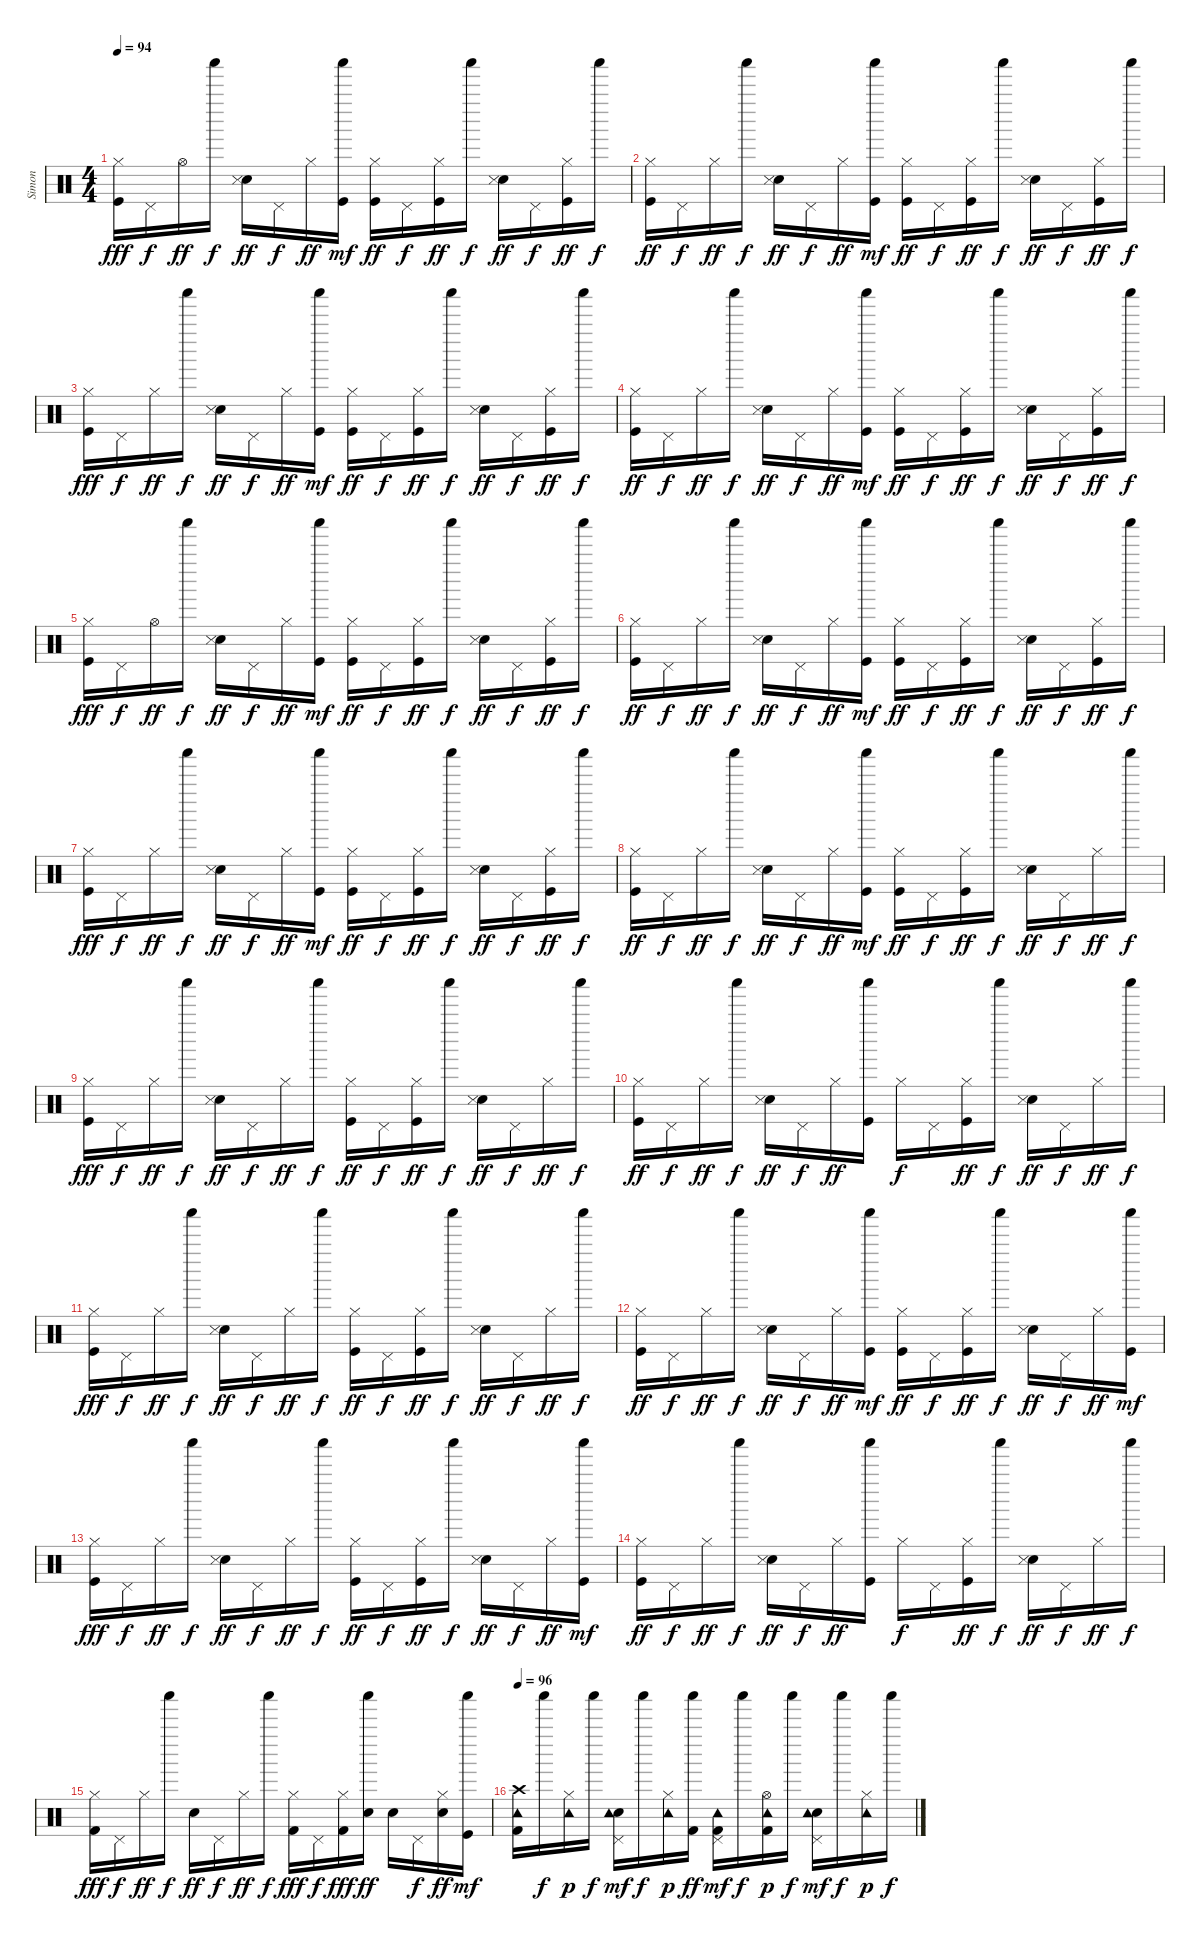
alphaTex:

\track ("Simon" "Simon") {instrument percussion}
\staff {score}
\articulation defaults
\ts (4 4)
\tempo 94
\clef neutral
\ks c
("Hi-Hat (closed)" "Kick (hit)").16{dy fff} "Pedal Hi-Hat (hit)".16{dy f} "Hi-Hat (open)".16{dy ff} "Shaker (hit)".16{dy f} ("Electric Snare (hit)" "Snare (side stick) 3").16{dy ff} "Pedal Hi-Hat (hit)".16{dy f} "Hi-Hat (closed)".16{dy ff} ("Shaker (hit)" "Kick (hit)").16{dy mf} ("Kick (hit)" "Hi-Hat (closed)").16{dy ff} "Pedal Hi-Hat (hit)".16{dy f} ("Kick (hit)" "Hi-Hat (closed)").16{dy ff} "Shaker (hit)".16{dy f} ("Electric Snare (hit)" "Snare (side stick) 3").16{dy ff} "Pedal Hi-Hat (hit)".16{dy f} ("Kick (hit)" "Hi-Hat (closed)").16{dy ff} "Shaker (hit)".16{dy f} |
("Kick (hit)" "Hi-Hat (closed)").16{dy ff} "Pedal Hi-Hat (hit)".16{dy f} "Hi-Hat (closed)".16{dy ff} "Shaker (hit)".16{dy f} ("Electric Snare (hit)" "Snare (side stick) 3").16{dy ff} "Pedal Hi-Hat (hit)".16{dy f} "Hi-Hat (closed)".16{dy ff} ("Kick (hit)" "Shaker (hit)").16{dy mf} ("Kick (hit)" "Hi-Hat (closed)").16{dy ff} "Pedal Hi-Hat (hit)".16{dy f} ("Kick (hit)" "Hi-Hat (closed)").16{dy ff} "Shaker (hit)".16{dy f} ("Electric Snare (hit)" "Snare (side stick) 3").16{dy ff} "Pedal Hi-Hat (hit)".16{dy f} ("Kick (hit)" "Hi-Hat (closed)").16{dy ff} "Shaker (hit)".16{dy f} |
("Hi-Hat (closed)" "Kick (hit)").16{dy fff} "Pedal Hi-Hat (hit)".16{dy f} "Hi-Hat (closed)".16{dy ff} "Shaker (hit)".16{dy f} ("Electric Snare (hit)" "Snare (side stick) 3").16{dy ff} "Pedal Hi-Hat (hit)".16{dy f} "Hi-Hat (closed)".16{dy ff} ("Shaker (hit)" "Kick (hit)").16{dy mf} ("Kick (hit)" "Hi-Hat (closed)").16{dy ff} "Pedal Hi-Hat (hit)".16{dy f} ("Kick (hit)" "Hi-Hat (closed)").16{dy ff} "Shaker (hit)".16{dy f} ("Electric Snare (hit)" "Snare (side stick) 3").16{dy ff} "Pedal Hi-Hat (hit)".16{dy f} ("Kick (hit)" "Hi-Hat (closed)").16{dy ff} "Shaker (hit)".16{dy f} |
("Kick (hit)" "Hi-Hat (closed)").16{dy ff} "Pedal Hi-Hat (hit)".16{dy f} "Hi-Hat (closed)".16{dy ff} "Shaker (hit)".16{dy f} ("Electric Snare (hit)" "Snare (side stick) 3").16{dy ff} "Pedal Hi-Hat (hit)".16{dy f} "Hi-Hat (closed)".16{dy ff} ("Kick (hit)" "Shaker (hit)").16{dy mf} ("Kick (hit)" "Hi-Hat (closed)").16{dy ff} "Pedal Hi-Hat (hit)".16{dy f} ("Kick (hit)" "Hi-Hat (closed)").16{dy ff} "Shaker (hit)".16{dy f} ("Electric Snare (hit)" "Snare (side stick) 3").16{dy ff} "Pedal Hi-Hat (hit)".16{dy f} ("Kick (hit)" "Hi-Hat (closed)").16{dy ff} "Shaker (hit)".16{dy f} |
("Hi-Hat (closed)" "Kick (hit)").16{dy fff} "Pedal Hi-Hat (hit)".16{dy f} "Hi-Hat (open)".16{dy ff} "Shaker (hit)".16{dy f} ("Electric Snare (hit)" "Snare (side stick) 3").16{dy ff} "Pedal Hi-Hat (hit)".16{dy f} "Hi-Hat (closed)".16{dy ff} ("Shaker (hit)" "Kick (hit)").16{dy mf} ("Kick (hit)" "Hi-Hat (closed)").16{dy ff} "Pedal Hi-Hat (hit)".16{dy f} ("Kick (hit)" "Hi-Hat (closed)").16{dy ff} "Shaker (hit)".16{dy f} ("Electric Snare (hit)" "Snare (side stick) 3").16{dy ff} "Pedal Hi-Hat (hit)".16{dy f} ("Kick (hit)" "Hi-Hat (closed)").16{dy ff} "Shaker (hit)".16{dy f} |
("Kick (hit)" "Hi-Hat (closed)").16{dy ff} "Pedal Hi-Hat (hit)".16{dy f} "Hi-Hat (closed)".16{dy ff} "Shaker (hit)".16{dy f} ("Electric Snare (hit)" "Snare (side stick) 3").16{dy ff} "Pedal Hi-Hat (hit)".16{dy f} "Hi-Hat (closed)".16{dy ff} ("Kick (hit)" "Shaker (hit)").16{dy mf} ("Kick (hit)" "Hi-Hat (closed)").16{dy ff} "Pedal Hi-Hat (hit)".16{dy f} ("Kick (hit)" "Hi-Hat (closed)").16{dy ff} "Shaker (hit)".16{dy f} ("Electric Snare (hit)" "Snare (side stick) 3").16{dy ff} "Pedal Hi-Hat (hit)".16{dy f} ("Kick (hit)" "Hi-Hat (closed)").16{dy ff} "Shaker (hit)".16{dy f} |
("Hi-Hat (closed)" "Kick (hit)").16{dy fff} "Pedal Hi-Hat (hit)".16{dy f} "Hi-Hat (closed)".16{dy ff} "Shaker (hit)".16{dy f} ("Electric Snare (hit)" "Snare (side stick) 3").16{dy ff} "Pedal Hi-Hat (hit)".16{dy f} "Hi-Hat (closed)".16{dy ff} ("Shaker (hit)" "Kick (hit)").16{dy mf} ("Kick (hit)" "Hi-Hat (closed)").16{dy ff} "Pedal Hi-Hat (hit)".16{dy f} ("Kick (hit)" "Hi-Hat (closed)").16{dy ff} "Shaker (hit)".16{dy f} ("Electric Snare (hit)" "Snare (side stick) 3").16{dy ff} "Pedal Hi-Hat (hit)".16{dy f} ("Kick (hit)" "Hi-Hat (closed)").16{dy ff} "Shaker (hit)".16{dy f} |
("Kick (hit)" "Hi-Hat (closed)").16{dy ff} "Pedal Hi-Hat (hit)".16{dy f} "Hi-Hat (closed)".16{dy ff} "Shaker (hit)".16{dy f} ("Electric Snare (hit)" "Snare (side stick) 3").16{dy ff} "Pedal Hi-Hat (hit)".16{dy f} "Hi-Hat (closed)".16{dy ff} ("Kick (hit)" "Shaker (hit)").16{dy mf} ("Kick (hit)" "Hi-Hat (closed)").16{dy ff} "Pedal Hi-Hat (hit)".16{dy f} ("Kick (hit)" "Hi-Hat (closed)").16{dy ff} "Shaker (hit)".16{dy f} ("Electric Snare (hit)" "Snare (side stick) 3").16{dy ff} "Pedal Hi-Hat (hit)".16{dy f} "Hi-Hat (closed)".16{dy ff} "Shaker (hit)".16{dy f} |
("Hi-Hat (closed)" "Kick (hit)").16{dy fff} "Pedal Hi-Hat (hit)".16{dy f} "Hi-Hat (closed)".16{dy ff} "Shaker (hit)".16{dy f} ("Electric Snare (hit)" "Snare (side stick) 3").16{dy ff} "Pedal Hi-Hat (hit)".16{dy f} "Hi-Hat (closed)".16{dy ff} "Shaker (hit)".16{dy f} ("Kick (hit)" "Hi-Hat (closed)").16{dy ff} "Pedal Hi-Hat (hit)".16{dy f} ("Kick (hit)" "Hi-Hat (closed)").16{dy ff} "Shaker (hit)".16{dy f} ("Electric Snare (hit)" "Snare (side stick) 3").16{dy ff} "Pedal Hi-Hat (hit)".16{dy f} "Hi-Hat (closed)".16{dy ff} "Shaker (hit)".16{dy f} |
("Kick (hit)" "Hi-Hat (closed)").16{dy ff} "Pedal Hi-Hat (hit)".16{dy f} "Hi-Hat (closed)".16{dy ff} "Shaker (hit)".16{dy f} ("Electric Snare (hit)" "Snare (side stick) 3").16{dy ff} "Pedal Hi-Hat (hit)".16{dy f} "Hi-Hat (closed)".16{dy ff} ("Shaker (hit)" "Kick (hit)").16 "Hi-Hat (closed)".16{dy f} "Pedal Hi-Hat (hit)".16 ("Kick (hit)" "Hi-Hat (closed)").16{dy ff} "Shaker (hit)".16{dy f} ("Electric Snare (hit)" "Snare (side stick) 3").16{dy ff} "Pedal Hi-Hat (hit)".16{dy f} "Hi-Hat (closed)".16{dy ff} "Shaker (hit)".16{dy f} |
("Hi-Hat (closed)" "Kick (hit)").16{dy fff} "Pedal Hi-Hat (hit)".16{dy f} "Hi-Hat (closed)".16{dy ff} "Shaker (hit)".16{dy f} ("Electric Snare (hit)" "Snare (side stick) 3").16{dy ff} "Pedal Hi-Hat (hit)".16{dy f} "Hi-Hat (closed)".16{dy ff} "Shaker (hit)".16{dy f} ("Kick (hit)" "Hi-Hat (closed)").16{dy ff} "Pedal Hi-Hat (hit)".16{dy f} ("Kick (hit)" "Hi-Hat (closed)").16{dy ff} "Shaker (hit)".16{dy f} ("Electric Snare (hit)" "Snare (side stick) 3").16{dy ff} "Pedal Hi-Hat (hit)".16{dy f} "Hi-Hat (closed)".16{dy ff} "Shaker (hit)".16{dy f} |
("Kick (hit)" "Hi-Hat (closed)").16{dy ff} "Pedal Hi-Hat (hit)".16{dy f} "Hi-Hat (closed)".16{dy ff} "Shaker (hit)".16{dy f} ("Electric Snare (hit)" "Snare (side stick) 3").16{dy ff} "Pedal Hi-Hat (hit)".16{dy f} "Hi-Hat (closed)".16{dy ff} ("Kick (hit)" "Shaker (hit)").16{dy mf} ("Kick (hit)" "Hi-Hat (closed)").16{dy ff} "Pedal Hi-Hat (hit)".16{dy f} ("Kick (hit)" "Hi-Hat (closed)").16{dy ff} "Shaker (hit)".16{dy f} ("Electric Snare (hit)" "Snare (side stick) 3").16{dy ff} "Pedal Hi-Hat (hit)".16{dy f} "Hi-Hat (closed)".16{dy ff} ("Shaker (hit)" "Kick (hit)").16{dy mf} |
("Hi-Hat (closed)" "Kick (hit)").16{dy fff} "Pedal Hi-Hat (hit)".16{dy f} "Hi-Hat (closed)".16{dy ff} "Shaker (hit)".16{dy f} ("Electric Snare (hit)" "Snare (side stick) 3").16{dy ff} "Pedal Hi-Hat (hit)".16{dy f} "Hi-Hat (closed)".16{dy ff} "Shaker (hit)".16{dy f} ("Kick (hit)" "Hi-Hat (closed)").16{dy ff} "Pedal Hi-Hat (hit)".16{dy f} ("Kick (hit)" "Hi-Hat (closed)").16{dy ff} "Shaker (hit)".16{dy f} ("Electric Snare (hit)" "Snare (side stick) 3").16{dy ff} "Pedal Hi-Hat (hit)".16{dy f} "Hi-Hat (closed)".16{dy ff} ("Kick (hit)" "Shaker (hit)").16{dy mf} |
("Kick (hit)" "Hi-Hat (closed)").16{dy ff} "Pedal Hi-Hat (hit)".16{dy f} "Hi-Hat (closed)".16{dy ff} "Shaker (hit)".16{dy f} ("Electric Snare (hit)" "Snare (side stick) 3").16{dy ff} "Pedal Hi-Hat (hit)".16{dy f} "Hi-Hat (closed)".16{dy ff} ("Shaker (hit)" "Kick (hit)").16 "Hi-Hat (closed)".16{dy f} "Pedal Hi-Hat (hit)".16 ("Kick (hit)" "Hi-Hat (closed)").16{dy ff} "Shaker (hit)".16{dy f} ("Electric Snare (hit)" "Snare (side stick) 3").16{dy ff} "Pedal Hi-Hat (hit)".16{dy f} "Hi-Hat (closed)".16{dy ff} "Shaker (hit)".16{dy f} |
("Hi-Hat (closed)" "Kick (hit) 2").16{dy fff} "Pedal Hi-Hat (hit)".16{dy f} "Hi-Hat (closed)".16{dy ff} "Shaker (hit)".16{dy f} "Snare (hit) 2".16{dy ff} "Pedal Hi-Hat (hit)".16{dy f} "Hi-Hat (closed)".16{dy ff} "Shaker (hit)".16{dy f} ("Hi-Hat (closed)" "Kick (hit) 2").16{dy fff} "Pedal Hi-Hat (hit)".16{dy f} ("Hi-Hat (closed)" "Kick (hit) 2").16{dy fff} ("Shaker (hit)" "Snare (hit) 2").16{dy ff} "Snare (hit) 2".16 "Pedal Hi-Hat (hit)".16{dy f} ("Hi-Hat (closed)" "Snare (hit) 2").16{dy ff} ("Kick (hit)" "Shaker (hit)").16{dy mf} |
\tempo 96
("Kick (hit) 2" "Crash high (hit)" "Tambourine (hit)").16 "Shaker (hit)".16{dy f} ("Hi-Hat (closed)" "Tambourine (hit)").16{dy p} "Shaker (hit)".16{dy f} ("Snare (hit) 2" "Pedal Hi-Hat (hit)" "Tambourine (hit)").16{dy mf} "Shaker (hit)".16{dy f} ("Hi-Hat (closed)" "Tambourine (hit)").16{dy p} ("Shaker (hit)" "Kick (hit) 2").16{dy ff} ("Kick (hit) 2" "Pedal Hi-Hat (hit)" "Tambourine (hit)").16{dy mf} "Shaker (hit)".16{dy f} ("Kick (hit) 2" "Hi-Hat (open)" "Tambourine (hit)").16{dy p} "Shaker (hit)".16{dy f} ("Snare (hit) 2" "Pedal Hi-Hat (hit)" "Tambourine (hit)").16{dy mf} "Shaker (hit)".16{dy f} ("Hi-Hat (closed)" "Tambourine (hit)").16{dy p} "Shaker (hit)".16{dy f}
